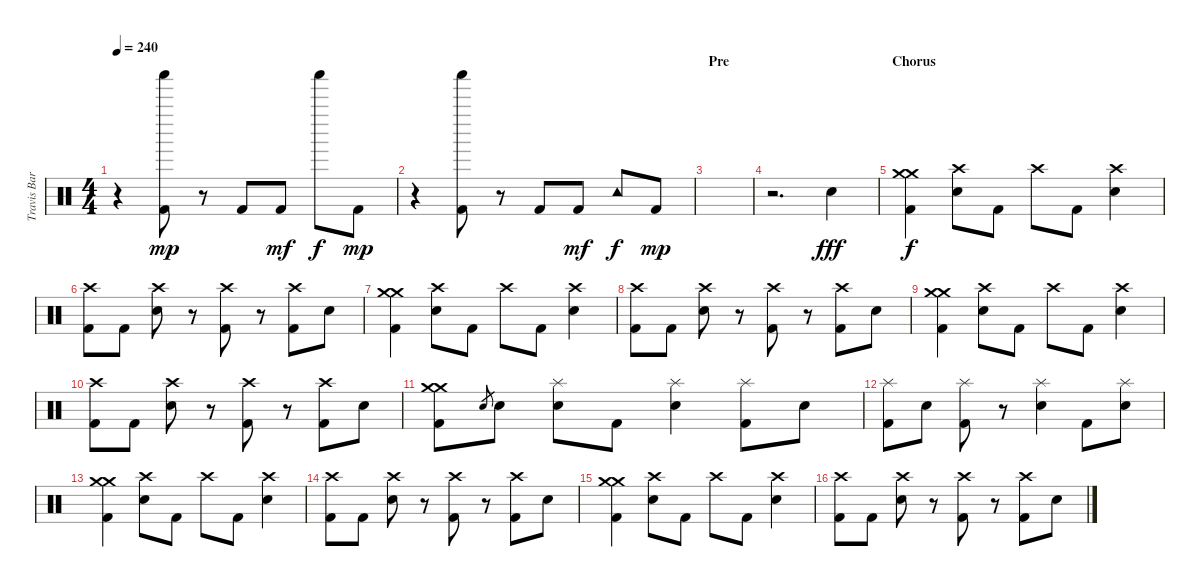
\track ("Travis Barker - Drums" "Travis Bar") {instrument percussion}
\staff {score}
\articulation defaults
\ts (4 4)
\tempo 240
\clef neutral
\ks c
r.4{dy mp} ("Shaker (hit)" "Kick (hit) 2").8 r.8 "Kick (hit) 2".8 "Kick (hit) 2".8{dy mf} "Shaker (hit)".8{dy f} "Kick (hit) 2".8{dy mp} |
r.4 ("Shaker (hit)" "Kick (hit) 2").8 r.8 "Kick (hit) 2".8 "Kick (hit) 2".8{dy mf} "Tambourine (hit)".8{dy f} "Kick (hit) 2".8{dy mp} |
\section ("" "Pre")
|
r.2{d} "Electric Snare (hit)".4{dy fff} |
\section ("" "Chorus")
("Crash medium (hit)" "Crash medium (hit)" "Kick (hit) 2").4{dy f} ("Crash high (hit)" "Electric Snare (hit)").8 "Kick (hit) 2".8 "Crash high (hit)".8 "Kick (hit) 2".8 ("Crash high (hit)" "Electric Snare (hit)").4 |
("Crash high (hit)" "Kick (hit) 2").8 "Kick (hit) 2".8 ("Crash high (hit)" "Electric Snare (hit)").8 r.8 ("Crash high (hit)" "Kick (hit) 2").8 r.8 ("Crash high (hit)" "Kick (hit) 2").8 "Electric Snare (hit)".8 |
("Crash medium (hit)" "Crash medium (hit)" "Kick (hit) 2").4 ("Crash high (hit)" "Electric Snare (hit)").8 "Kick (hit) 2".8 "Crash high (hit)".8 "Kick (hit) 2".8 ("Crash high (hit)" "Electric Snare (hit)").4 |
("Crash high (hit)" "Kick (hit) 2").8 "Kick (hit) 2".8 ("Crash high (hit)" "Electric Snare (hit)").8 r.8 ("Crash high (hit)" "Kick (hit) 2").8 r.8 ("Crash high (hit)" "Kick (hit) 2").8 "Electric Snare (hit)".8 |
("Crash medium (hit)" "Crash medium (hit)" "Kick (hit) 2").4 ("Crash high (hit)" "Electric Snare (hit)").8 "Kick (hit) 2".8 "Crash high (hit)".8 "Kick (hit) 2".8 ("Crash high (hit)" "Electric Snare (hit)").4 |
("Crash high (hit)" "Kick (hit) 2").8 "Kick (hit) 2".8 ("Crash high (hit)" "Electric Snare (hit)").8 r.8 ("Crash high (hit)" "Kick (hit) 2").8 r.8 ("Crash high (hit)" "Kick (hit) 2").8 "Electric Snare (hit)".8 |
("Crash medium (hit)" "Crash medium (hit)" "Kick (hit) 2").8 "Electric Snare (hit)".8{gr} "Electric Snare (hit)".8 ("Splash (hit)" "Electric Snare (hit)").8 "Kick (hit) 2".8 ("Splash (hit)" "Electric Snare (hit)").4 ("Splash (hit)" "Kick (hit) 2").8 "Electric Snare (hit)".8 |
("Splash (hit)" "Kick (hit) 2").8 "Electric Snare (hit)".8 ("Splash (hit)" "Kick (hit) 2").8 r.8 ("Splash (hit)" "Electric Snare (hit)").4 "Kick (hit) 2".8 ("Splash (hit)" "Electric Snare (hit)").8 |
("Crash medium (hit)" "Crash medium (hit)" "Kick (hit) 2").4 ("Crash high (hit)" "Electric Snare (hit)").8 "Kick (hit) 2".8 "Crash high (hit)".8 "Kick (hit) 2".8 ("Crash high (hit)" "Electric Snare (hit)").4 |
("Crash high (hit)" "Kick (hit) 2").8 "Kick (hit) 2".8 ("Crash high (hit)" "Electric Snare (hit)").8 r.8 ("Crash high (hit)" "Kick (hit) 2").8 r.8 ("Crash high (hit)" "Kick (hit) 2").8 "Electric Snare (hit)".8 |
("Crash medium (hit)" "Crash medium (hit)" "Kick (hit) 2").4 ("Crash high (hit)" "Electric Snare (hit)").8 "Kick (hit) 2".8 "Crash high (hit)".8 "Kick (hit) 2".8 ("Crash high (hit)" "Electric Snare (hit)").4 |
("Crash high (hit)" "Kick (hit) 2").8 "Kick (hit) 2".8 ("Crash high (hit)" "Electric Snare (hit)").8 r.8 ("Crash high (hit)" "Kick (hit) 2").8 r.8 ("Crash high (hit)" "Kick (hit) 2").8 "Electric Snare (hit)".8
